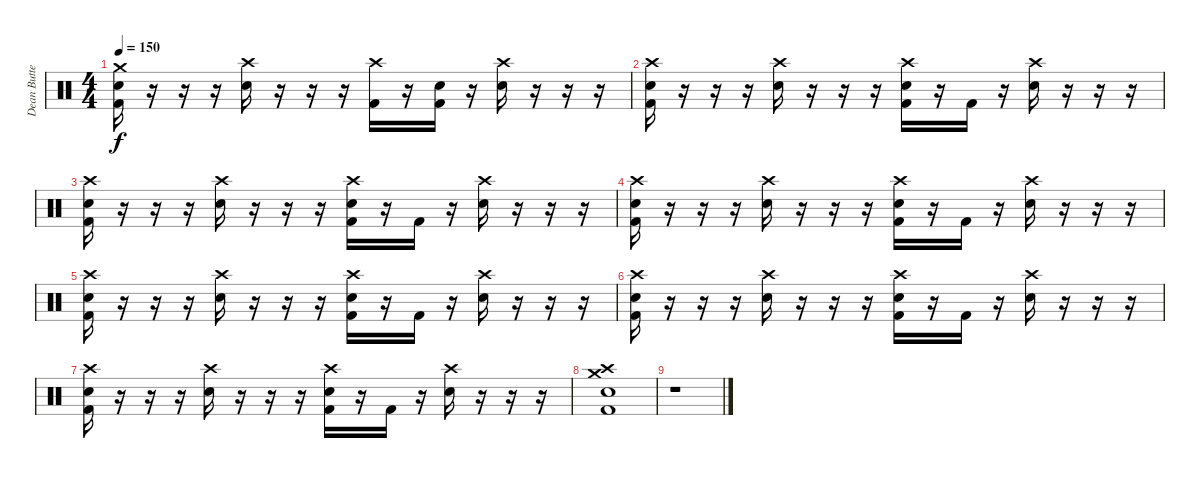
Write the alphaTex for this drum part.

\track ("Dean Butterworth" "Dean Butte") {instrument percussion}
\staff {score}
\articulation defaults
\ts (4 4)
\tempo 150
\clef neutral
\ks c
("Crash medium (hit)" "Electric Snare (hit)" "Kick (hit) 2").16{dy f} r.16 r.16 r.16 ("Crash high (hit)" "Electric Snare (hit)").16 r.16 r.16 r.16 ("Crash high (hit)" "Kick (hit) 2").16 r.16 ("Electric Snare (hit)" "Kick (hit) 2").16 r.16 ("Crash high (hit)" "Electric Snare (hit)").16 r.16 r.16 r.16 |
("Crash high (hit)" "Electric Snare (hit)" "Kick (hit) 2").16 r.16 r.16 r.16 ("Crash high (hit)" "Electric Snare (hit)").16 r.16 r.16 r.16 ("Crash high (hit)" "Electric Snare (hit)" "Kick (hit) 2").16 r.16 "Kick (hit) 2".16 r.16 ("Crash high (hit)" "Electric Snare (hit)").16 r.16 r.16 r.16 |
("Crash high (hit)" "Electric Snare (hit)" "Kick (hit) 2").16 r.16 r.16 r.16 ("Crash high (hit)" "Electric Snare (hit)").16 r.16 r.16 r.16 ("Crash high (hit)" "Electric Snare (hit)" "Kick (hit) 2").16 r.16 "Kick (hit) 2".16 r.16 ("Crash high (hit)" "Electric Snare (hit)").16 r.16 r.16 r.16 |
("Crash high (hit)" "Electric Snare (hit)" "Kick (hit) 2").16 r.16 r.16 r.16 ("Crash high (hit)" "Electric Snare (hit)").16 r.16 r.16 r.16 ("Crash high (hit)" "Electric Snare (hit)" "Kick (hit) 2").16 r.16 "Kick (hit) 2".16 r.16 ("Crash high (hit)" "Electric Snare (hit)").16 r.16 r.16 r.16 |
("Crash high (hit)" "Electric Snare (hit)" "Kick (hit) 2").16 r.16 r.16 r.16 ("Crash high (hit)" "Electric Snare (hit)").16 r.16 r.16 r.16 ("Crash high (hit)" "Electric Snare (hit)" "Kick (hit) 2").16 r.16 "Kick (hit) 2".16 r.16 ("Crash high (hit)" "Electric Snare (hit)").16 r.16 r.16 r.16 |
("Crash high (hit)" "Electric Snare (hit)" "Kick (hit) 2").16 r.16 r.16 r.16 ("Crash high (hit)" "Electric Snare (hit)").16 r.16 r.16 r.16 ("Crash high (hit)" "Electric Snare (hit)" "Kick (hit) 2").16 r.16 "Kick (hit) 2".16 r.16 ("Crash high (hit)" "Electric Snare (hit)").16 r.16 r.16 r.16 |
("Crash high (hit)" "Electric Snare (hit)" "Kick (hit) 2").16 r.16 r.16 r.16 ("Crash high (hit)" "Electric Snare (hit)").16 r.16 r.16 r.16 ("Crash high (hit)" "Electric Snare (hit)" "Kick (hit) 2").16 r.16 "Kick (hit) 2".16 r.16 ("Crash high (hit)" "Electric Snare (hit)").16 r.16 r.16 r.16 |
("Crash high (hit)" "Crash medium (hit)" "Electric Snare (hit)" "Kick (hit) 2").1 |
r.1
